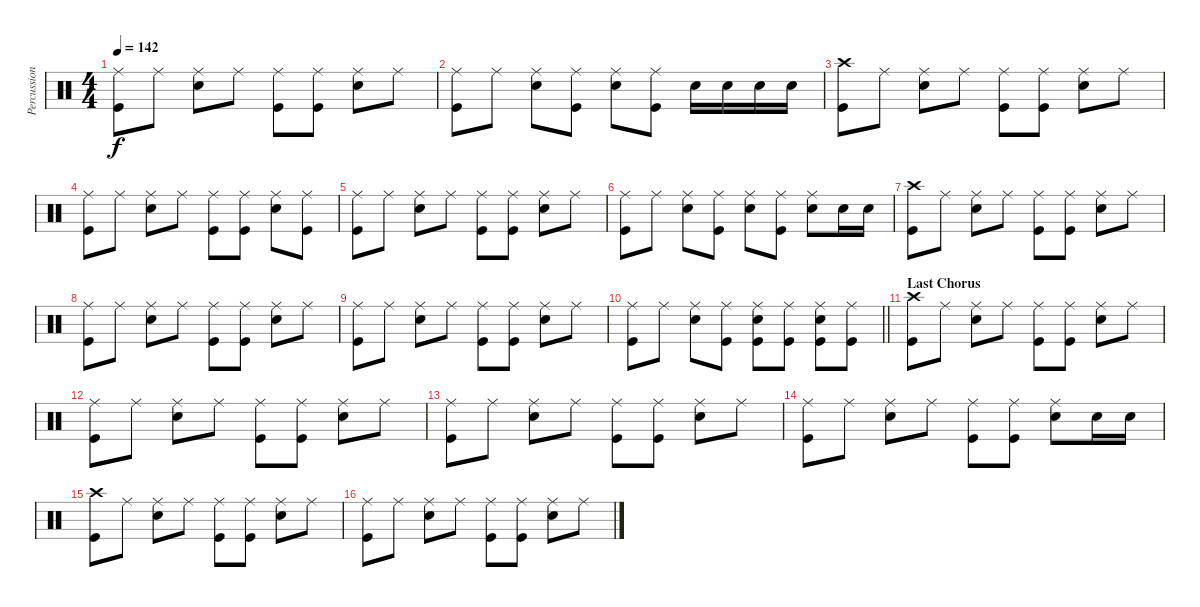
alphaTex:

\track ("Percussion" "Percussion") {instrument percussion}
\staff {score}
\articulation defaults
\ts (4 4)
\tempo 142
\clef neutral
\ks c
("Ride (middle)" "Kick (hit)").8{dy f} "Ride (middle)".8 ("Ride (middle)" "Snare (hit) 2").8 "Ride (middle)".8 ("Ride (middle)" "Kick (hit)").8 ("Ride (middle)" "Kick (hit)").8 ("Ride (middle)" "Snare (hit) 2").8 "Ride (middle)".8 |
("Ride (middle)" "Kick (hit)").8 "Ride (middle)".8 ("Ride (middle)" "Snare (hit) 2").8 ("Ride (middle)" "Kick (hit)").8 ("Ride (middle)" "Snare (hit) 2").8 ("Ride (middle)" "Kick (hit)").8 "Snare (hit) 2".16 "Snare (hit) 2".16 "Snare (hit) 2".16 "Snare (hit) 2".16 |
("Crash high (hit)" "Kick (hit)").8 "Ride (middle)".8 ("Ride (middle)" "Snare (hit) 2").8 "Ride (middle)".8 ("Ride (middle)" "Kick (hit)").8 ("Ride (middle)" "Kick (hit)").8 ("Ride (middle)" "Snare (hit) 2").8 "Ride (middle)".8 |
("Ride (middle)" "Kick (hit)").8 "Ride (middle)".8 ("Ride (middle)" "Snare (hit) 2").8 "Ride (middle)".8 ("Ride (middle)" "Kick (hit)").8 ("Ride (middle)" "Kick (hit)").8 ("Ride (middle)" "Snare (hit) 2").8 ("Ride (middle)" "Kick (hit)").8 |
("Ride (middle)" "Kick (hit)").8 "Ride (middle)".8 ("Ride (middle)" "Snare (hit) 2").8 "Ride (middle)".8 ("Ride (middle)" "Kick (hit)").8 ("Ride (middle)" "Kick (hit)").8 ("Ride (middle)" "Snare (hit) 2").8 "Ride (middle)".8 |
("Ride (middle)" "Kick (hit)").8 "Ride (middle)".8 ("Ride (middle)" "Snare (hit) 2").8 ("Ride (middle)" "Kick (hit)").8 ("Ride (middle)" "Snare (hit) 2").8 ("Ride (middle)" "Kick (hit)").8 ("Ride (middle)" "Snare (hit) 2").8 "Snare (hit) 2".16 "Snare (hit) 2".16 |
("Crash high (hit)" "Kick (hit)").8 "Ride (middle)".8 ("Ride (middle)" "Snare (hit) 2").8 "Ride (middle)".8 ("Ride (middle)" "Kick (hit)").8 ("Ride (middle)" "Kick (hit)").8 ("Ride (middle)" "Snare (hit) 2").8 "Ride (middle)".8 |
("Ride (middle)" "Kick (hit)").8 "Ride (middle)".8 ("Ride (middle)" "Snare (hit) 2").8 "Ride (middle)".8 ("Ride (middle)" "Kick (hit)").8 ("Ride (middle)" "Kick (hit)").8 ("Ride (middle)" "Snare (hit) 2").8 "Ride (middle)".8 |
("Ride (middle)" "Kick (hit)").8 "Ride (middle)".8 ("Ride (middle)" "Snare (hit) 2").8 "Ride (middle)".8 ("Ride (middle)" "Kick (hit)").8 ("Ride (middle)" "Kick (hit)").8 ("Ride (middle)" "Snare (hit) 2").8 "Ride (middle)".8 |
\barLineRight lightlight
("Ride (middle)" "Kick (hit)").8 "Ride (middle)".8 ("Ride (middle)" "Snare (hit) 2").8 ("Ride (middle)" "Kick (hit)").8 ("Ride (middle)" "Snare (hit) 2" "Kick (hit)").8 ("Ride (middle)" "Kick (hit)").8 ("Ride (middle)" "Snare (hit) 2" "Kick (hit)").8 ("Ride (middle)" "Kick (hit)").8 |
\section ("" "Last Chorus")
("Crash high (hit)" "Kick (hit)").8 "Ride (middle)".8 ("Ride (middle)" "Snare (hit) 2").8 "Ride (middle)".8 ("Ride (middle)" "Kick (hit)").8 ("Ride (middle)" "Kick (hit)").8 ("Ride (middle)" "Snare (hit) 2").8 "Ride (middle)".8 |
("Ride (middle)" "Kick (hit)").8 "Ride (middle)".8 ("Ride (middle)" "Snare (hit) 2").8 "Ride (middle)".8 ("Ride (middle)" "Kick (hit)").8 ("Ride (middle)" "Kick (hit)").8 ("Ride (middle)" "Snare (hit) 2").8 "Ride (middle)".8 |
("Ride (middle)" "Kick (hit)").8 "Ride (middle)".8 ("Ride (middle)" "Snare (hit) 2").8 "Ride (middle)".8 ("Ride (middle)" "Kick (hit)").8 ("Ride (middle)" "Kick (hit)").8 ("Ride (middle)" "Snare (hit) 2").8 "Ride (middle)".8 |
("Ride (middle)" "Kick (hit)").8 "Ride (middle)".8 ("Ride (middle)" "Snare (hit) 2").8 "Ride (middle)".8 ("Ride (middle)" "Kick (hit)").8 ("Ride (middle)" "Kick (hit)").8 ("Ride (middle)" "Snare (hit) 2").8 "Snare (hit) 2".16 "Snare (hit) 2".16 |
("Crash high (hit)" "Kick (hit)").8 "Ride (middle)".8 ("Ride (middle)" "Snare (hit) 2").8 "Ride (middle)".8 ("Ride (middle)" "Kick (hit)").8 ("Ride (middle)" "Kick (hit)").8 ("Ride (middle)" "Snare (hit) 2").8 "Ride (middle)".8 |
("Ride (middle)" "Kick (hit)").8 "Ride (middle)".8 ("Ride (middle)" "Snare (hit) 2").8 "Ride (middle)".8 ("Ride (middle)" "Kick (hit)").8 ("Ride (middle)" "Kick (hit)").8 ("Ride (middle)" "Snare (hit) 2").8 "Ride (middle)".8
